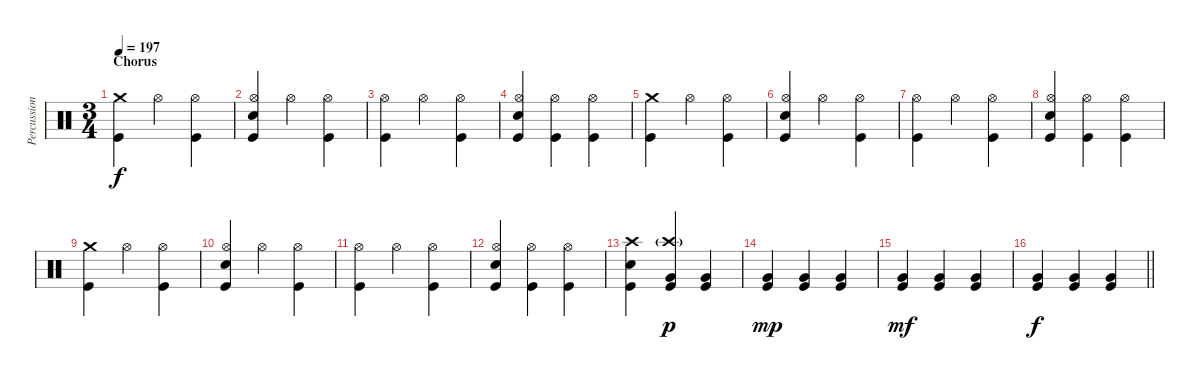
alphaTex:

\track ("Percussion" "Percussion") {instrument percussion}
\staff {score}
\articulation defaults
\ts (3 4)
\section ("" "Chorus")
\tempo 197
\clef neutral
\ks c
("Crash medium (hit)" "Kick (hit)").4{dy f} "Hi-Hat (open)".4 ("Hi-Hat (open)" "Kick (hit)").4 |
("Hi-Hat (open)" "Electric Snare (hit)" "Kick (hit)").4 "Hi-Hat (open)".4 ("Hi-Hat (open)" "Kick (hit)").4 |
("Hi-Hat (open)" "Kick (hit)").4 "Hi-Hat (open)".4 ("Hi-Hat (open)" "Kick (hit)").4 |
("Hi-Hat (open)" "Electric Snare (hit)" "Kick (hit)").4 ("Hi-Hat (open)" "Kick (hit)").4 ("Hi-Hat (open)" "Kick (hit)").4 |
("Crash medium (hit)" "Kick (hit)").4 "Hi-Hat (open)".4 ("Hi-Hat (open)" "Kick (hit)").4 |
("Hi-Hat (open)" "Electric Snare (hit)" "Kick (hit)").4 "Hi-Hat (open)".4 ("Hi-Hat (open)" "Kick (hit)").4 |
("Hi-Hat (open)" "Kick (hit)").4 "Hi-Hat (open)".4 ("Hi-Hat (open)" "Kick (hit)").4 |
("Hi-Hat (open)" "Electric Snare (hit)" "Kick (hit)").4 ("Hi-Hat (open)" "Kick (hit)").4 ("Hi-Hat (open)" "Kick (hit)").4 |
("Crash medium (hit)" "Kick (hit)").4 "Hi-Hat (open)".4 ("Hi-Hat (open)" "Kick (hit)").4 |
("Hi-Hat (open)" "Electric Snare (hit)" "Kick (hit)").4 "Hi-Hat (open)".4 ("Hi-Hat (open)" "Kick (hit)").4 |
("Hi-Hat (open)" "Kick (hit)").4 "Hi-Hat (open)".4 ("Hi-Hat (open)" "Kick (hit)").4 |
("Hi-Hat (open)" "Electric Snare (hit)" "Kick (hit)").4 ("Hi-Hat (open)" "Kick (hit)").4 ("Hi-Hat (open)" "Kick (hit)").4 |
("Crash high (hit)" "Electric Snare (hit)" "Kick (hit)").4 ("Crash high (hit)"{g} "Very Low Tom (hit)" "Kick (hit)").4{dy p} ("Very Low Tom (hit)" "Kick (hit)").4 |
("Very Low Tom (hit)" "Kick (hit)").4{dy mp} ("Very Low Tom (hit)" "Kick (hit)").4 ("Very Low Tom (hit)" "Kick (hit)").4 |
("Very Low Tom (hit)" "Kick (hit)").4{dy mf} ("Very Low Tom (hit)" "Kick (hit)").4 ("Very Low Tom (hit)" "Kick (hit)").4 |
\barLineRight lightlight
("Very Low Tom (hit)" "Kick (hit)").4{dy f} ("Very Low Tom (hit)" "Kick (hit)").4 ("Very Low Tom (hit)" "Kick (hit)").4
